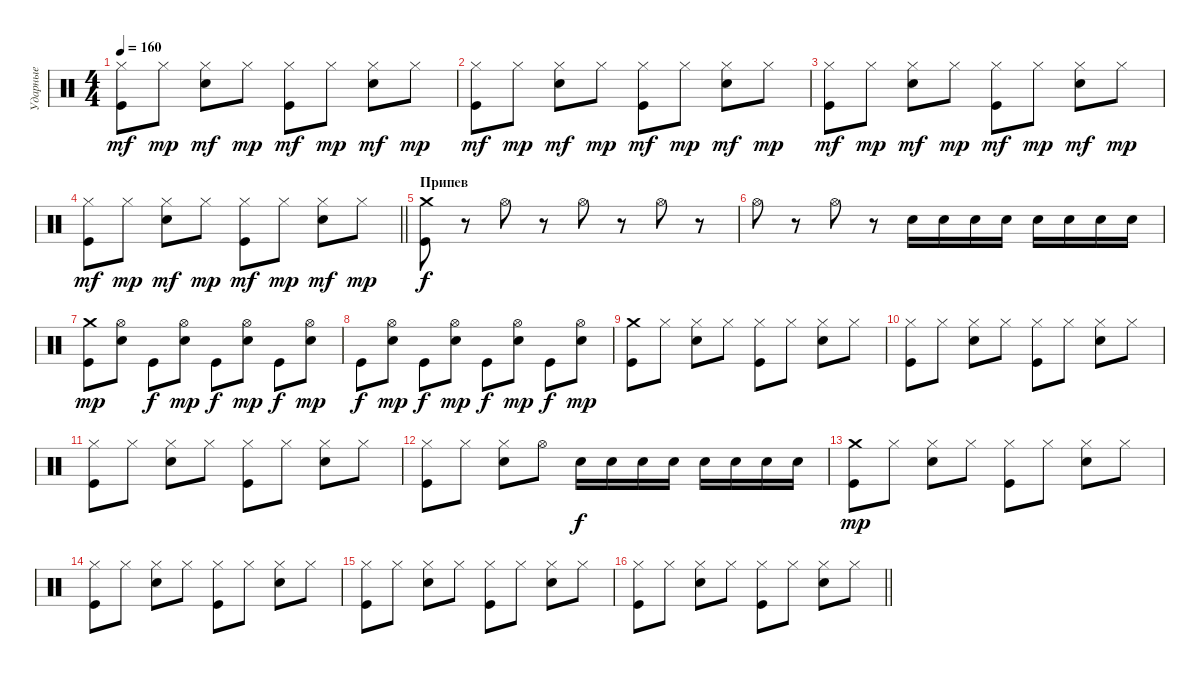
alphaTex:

\track ("Ударные" "Ударные") {instrument percussion}
\staff {score}
\articulation defaults
\ts (4 4)
\tempo 160
\clef neutral
\ks c
("Hi-Hat (closed)" "Kick (hit)").8{dy mf} "Hi-Hat (closed)".8{dy mp} ("Hi-Hat (closed)" "Electric Snare (hit)").8{dy mf} "Hi-Hat (closed)".8{dy mp} ("Hi-Hat (closed)" "Kick (hit)").8{dy mf} "Hi-Hat (closed)".8{dy mp} ("Hi-Hat (closed)" "Electric Snare (hit)").8{dy mf} "Hi-Hat (closed)".8{dy mp} |
("Hi-Hat (closed)" "Kick (hit)").8{dy mf} "Hi-Hat (closed)".8{dy mp} ("Hi-Hat (closed)" "Electric Snare (hit)").8{dy mf} "Hi-Hat (closed)".8{dy mp} ("Hi-Hat (closed)" "Kick (hit)").8{dy mf} "Hi-Hat (closed)".8{dy mp} ("Hi-Hat (closed)" "Electric Snare (hit)").8{dy mf} "Hi-Hat (closed)".8{dy mp} |
("Hi-Hat (closed)" "Kick (hit)").8{dy mf} "Hi-Hat (closed)".8{dy mp} ("Hi-Hat (closed)" "Electric Snare (hit)").8{dy mf} "Hi-Hat (closed)".8{dy mp} ("Hi-Hat (closed)" "Kick (hit)").8{dy mf} "Hi-Hat (closed)".8{dy mp} ("Hi-Hat (closed)" "Electric Snare (hit)").8{dy mf} "Hi-Hat (closed)".8{dy mp} |
\barLineRight lightlight
("Hi-Hat (closed)" "Kick (hit)").8{dy mf} "Hi-Hat (closed)".8{dy mp} ("Hi-Hat (closed)" "Electric Snare (hit)").8{dy mf} "Hi-Hat (closed)".8{dy mp} ("Hi-Hat (closed)" "Kick (hit)").8{dy mf} "Hi-Hat (closed)".8{dy mp} ("Hi-Hat (closed)" "Electric Snare (hit)").8{dy mf} "Hi-Hat (closed)".8{dy mp} |
\section ("" "Припев")
("Crash medium (hit)" "Kick (hit)").8{dy f} r.8 "Hi-Hat (open)".8 r.8 "Hi-Hat (open)".8 r.8 "Hi-Hat (open)".8 r.8 |
"Hi-Hat (open)".8 r.8 "Hi-Hat (open)".8 r.8 "Electric Snare (hit)".16 "Electric Snare (hit)".16 "Electric Snare (hit)".16 "Electric Snare (hit)".16 "Electric Snare (hit)".16 "Electric Snare (hit)".16 "Electric Snare (hit)".16 "Electric Snare (hit)".16 |
("Crash medium (hit)" "Kick (hit)").8{dy mp} ("Hi-Hat (open)" "Electric Snare (hit)").8 "Kick (hit)".8{dy f} ("Hi-Hat (open)" "Electric Snare (hit)").8{dy mp} "Kick (hit)".8{dy f} ("Hi-Hat (open)" "Electric Snare (hit)").8{dy mp} "Kick (hit)".8{dy f} ("Hi-Hat (open)" "Electric Snare (hit)").8{dy mp} |
"Kick (hit)".8{dy f} ("Hi-Hat (open)" "Electric Snare (hit)").8{dy mp} "Kick (hit)".8{dy f} ("Hi-Hat (open)" "Electric Snare (hit)").8{dy mp} "Kick (hit)".8{dy f} ("Hi-Hat (open)" "Electric Snare (hit)").8{dy mp} "Kick (hit)".8{dy f} ("Hi-Hat (open)" "Electric Snare (hit)").8{dy mp} |
("Crash medium (hit)" "Kick (hit)").8 "Hi-Hat (closed)".8 ("Hi-Hat (closed)" "Electric Snare (hit)").8 "Hi-Hat (closed)".8 ("Hi-Hat (closed)" "Kick (hit)").8 "Hi-Hat (closed)".8 ("Hi-Hat (closed)" "Electric Snare (hit)").8 "Hi-Hat (closed)".8 |
("Hi-Hat (closed)" "Kick (hit)").8 "Hi-Hat (closed)".8 ("Hi-Hat (closed)" "Electric Snare (hit)").8 "Hi-Hat (closed)".8 ("Hi-Hat (closed)" "Kick (hit)").8 "Hi-Hat (closed)".8 ("Hi-Hat (closed)" "Electric Snare (hit)").8 "Hi-Hat (closed)".8 |
("Hi-Hat (closed)" "Kick (hit)").8 "Hi-Hat (closed)".8 ("Hi-Hat (closed)" "Electric Snare (hit)").8 "Hi-Hat (closed)".8 ("Hi-Hat (closed)" "Kick (hit)").8 "Hi-Hat (closed)".8 ("Hi-Hat (closed)" "Electric Snare (hit)").8 "Hi-Hat (closed)".8 |
("Hi-Hat (closed)" "Kick (hit)").8 "Hi-Hat (closed)".8 ("Hi-Hat (closed)" "Electric Snare (hit)").8 "Hi-Hat (open)".8 "Electric Snare (hit)".16{dy f} "Electric Snare (hit)".16 "Electric Snare (hit)".16 "Electric Snare (hit)".16 "Electric Snare (hit)".16 "Electric Snare (hit)".16 "Electric Snare (hit)".16 "Electric Snare (hit)".16 |
("Crash medium (hit)" "Kick (hit)").8{dy mp} "Hi-Hat (closed)".8 ("Hi-Hat (closed)" "Electric Snare (hit)").8 "Hi-Hat (closed)".8 ("Hi-Hat (closed)" "Kick (hit)").8 "Hi-Hat (closed)".8 ("Hi-Hat (closed)" "Electric Snare (hit)").8 "Hi-Hat (closed)".8 |
("Hi-Hat (closed)" "Kick (hit)").8 "Hi-Hat (closed)".8 ("Hi-Hat (closed)" "Electric Snare (hit)").8 "Hi-Hat (closed)".8 ("Hi-Hat (closed)" "Kick (hit)").8 "Hi-Hat (closed)".8 ("Hi-Hat (closed)" "Electric Snare (hit)").8 "Hi-Hat (closed)".8 |
("Hi-Hat (closed)" "Kick (hit)").8 "Hi-Hat (closed)".8 ("Hi-Hat (closed)" "Electric Snare (hit)").8 "Hi-Hat (closed)".8 ("Hi-Hat (closed)" "Kick (hit)").8 "Hi-Hat (closed)".8 ("Hi-Hat (closed)" "Electric Snare (hit)").8 "Hi-Hat (closed)".8 |
\barLineRight lightlight
("Hi-Hat (closed)" "Kick (hit)").8 "Hi-Hat (closed)".8 ("Hi-Hat (closed)" "Electric Snare (hit)").8 "Hi-Hat (closed)".8 ("Hi-Hat (closed)" "Kick (hit)").8 "Hi-Hat (closed)".8 ("Hi-Hat (closed)" "Electric Snare (hit)").8 "Hi-Hat (closed)".8
